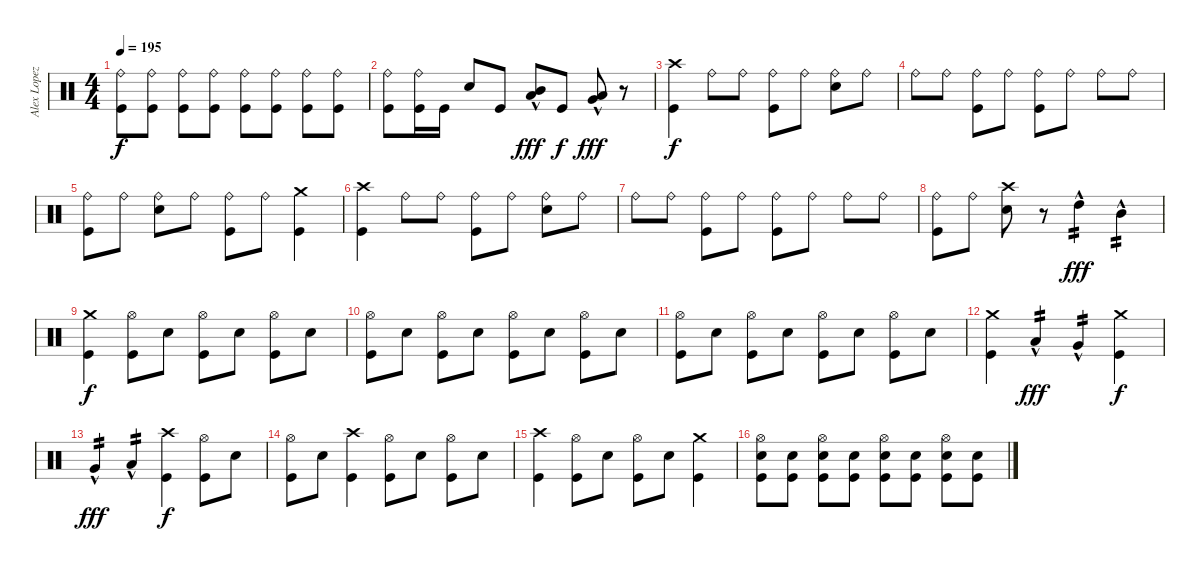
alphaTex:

\track ("Alex Lopez" "Alex Lopez") {instrument percussion}
\staff {score}
\articulation defaults
\ts (4 4)
\tempo 195
\clef neutral
\ks c
("Ride (bell)" "Kick (hit)").8{dy f} ("Ride (bell)" "Kick (hit)").8 ("Ride (bell)" "Kick (hit)").8 ("Ride (bell)" "Kick (hit)").8 ("Ride (bell)" "Kick (hit)").8 ("Ride (bell)" "Kick (hit)").8 ("Ride (bell)" "Kick (hit)").8 ("Ride (bell)" "Kick (hit)").8 |
("Ride (bell)" "Kick (hit)").8 ("Ride (bell)" "Kick (hit)").16 "Kick (hit)".16 "Electric Snare (hit)".8 "Kick (hit)".8 ("Mid Tom (hit)"{hac} "Low Tom (hit)"{hac}).8{dy fff} "Kick (hit)".8{dy f} ("Low Floor Tom (hit)"{hac} "Very Low Tom (hit)"{hac}).8{dy fff} r.8 |
("Crash high (hit)" "Kick (hit)").4{dy f} "Ride (bell)".8 "Ride (bell)".8 ("Ride (bell)" "Kick (hit)").8 "Ride (bell)".8 ("Ride (bell)" "Electric Snare (hit)").8 "Ride (bell)".8 |
"Ride (bell)".8 "Ride (bell)".8 ("Ride (bell)" "Kick (hit)").8 "Ride (bell)".8 ("Ride (bell)" "Kick (hit)").8 "Ride (bell)".8 "Ride (bell)".8 "Ride (bell)".8 |
("Ride (bell)" "Kick (hit)").8 "Ride (bell)".8 ("Ride (bell)" "Electric Snare (hit)").8 "Ride (bell)".8 ("Ride (bell)" "Kick (hit)").8 "Ride (bell)".8 ("Crash medium (hit)" "Kick (hit)").4 |
("Crash high (hit)" "Kick (hit)").4 "Ride (bell)".8 "Ride (bell)".8 ("Ride (bell)" "Kick (hit)").8 "Ride (bell)".8 ("Ride (bell)" "Electric Snare (hit)").8 "Ride (bell)".8 |
"Ride (bell)".8 "Ride (bell)".8 ("Ride (bell)" "Kick (hit)").8 "Ride (bell)".8 ("Ride (bell)" "Kick (hit)").8 "Ride (bell)".8 "Ride (bell)".8 "Ride (bell)".8 |
("Ride (bell)" "Kick (hit)").8 "Ride (bell)".8 ("Crash high (hit)" "Electric Snare (hit)").8 r.8 "High Tom (hit)"{hac}.4{tp 2 dy fff} "Mid Tom (hit)"{hac}.4{tp 2} |
("Crash medium (hit)" "Kick (hit)").4{dy f} ("Hi-Hat (open)" "Kick (hit)").8 "Electric Snare (hit)".8 ("Hi-Hat (open)" "Kick (hit)").8 "Electric Snare (hit)".8 ("Hi-Hat (open)" "Kick (hit)").8 "Electric Snare (hit)".8 |
("Hi-Hat (open)" "Kick (hit)").8 "Electric Snare (hit)".8 ("Hi-Hat (open)" "Kick (hit)").8 "Electric Snare (hit)".8 ("Hi-Hat (open)" "Kick (hit)").8 "Electric Snare (hit)".8 ("Hi-Hat (open)" "Kick (hit)").8 "Electric Snare (hit)".8 |
("Hi-Hat (open)" "Kick (hit)").8 "Electric Snare (hit)".8 ("Hi-Hat (open)" "Kick (hit)").8 "Electric Snare (hit)".8 ("Hi-Hat (open)" "Kick (hit)").8 "Electric Snare (hit)".8 ("Hi-Hat (open)" "Kick (hit)").8 "Electric Snare (hit)".8 |
("Crash medium (hit)" "Kick (hit)").4 "Low Tom (hit)"{hac}.4{tp 2 dy fff} "Very Low Tom (hit)"{hac}.4{tp 2} ("Crash medium (hit)" "Kick (hit)").4{dy f} |
"Very Low Tom (hit)"{hac}.4{tp 2 dy fff} "Low Floor Tom (hit)"{hac}.4{tp 2} ("Crash high (hit)" "Kick (hit)").4{dy f} ("Hi-Hat (open)" "Kick (hit)").8 "Electric Snare (hit)".8 |
("Hi-Hat (open)" "Kick (hit)").8 "Electric Snare (hit)".8 ("Crash high (hit)" "Kick (hit)").4 ("Hi-Hat (open)" "Kick (hit)").8 "Electric Snare (hit)".8 ("Hi-Hat (open)" "Kick (hit)").8 "Electric Snare (hit)".8 |
("Crash high (hit)" "Kick (hit)").4 ("Hi-Hat (open)" "Kick (hit)").8 "Electric Snare (hit)".8 ("Hi-Hat (open)" "Kick (hit)").8 "Electric Snare (hit)".8 ("Crash medium (hit)" "Kick (hit)").4 |
("Hi-Hat (open)" "Electric Snare (hit)" "Kick (hit)").8 ("Electric Snare (hit)" "Kick (hit)").8 ("Hi-Hat (open)" "Electric Snare (hit)" "Kick (hit)").8 ("Electric Snare (hit)" "Kick (hit)").8 ("Hi-Hat (open)" "Electric Snare (hit)" "Kick (hit)").8 ("Electric Snare (hit)" "Kick (hit)").8 ("Hi-Hat (open)" "Electric Snare (hit)" "Kick (hit)").8 ("Electric Snare (hit)" "Kick (hit)").8
